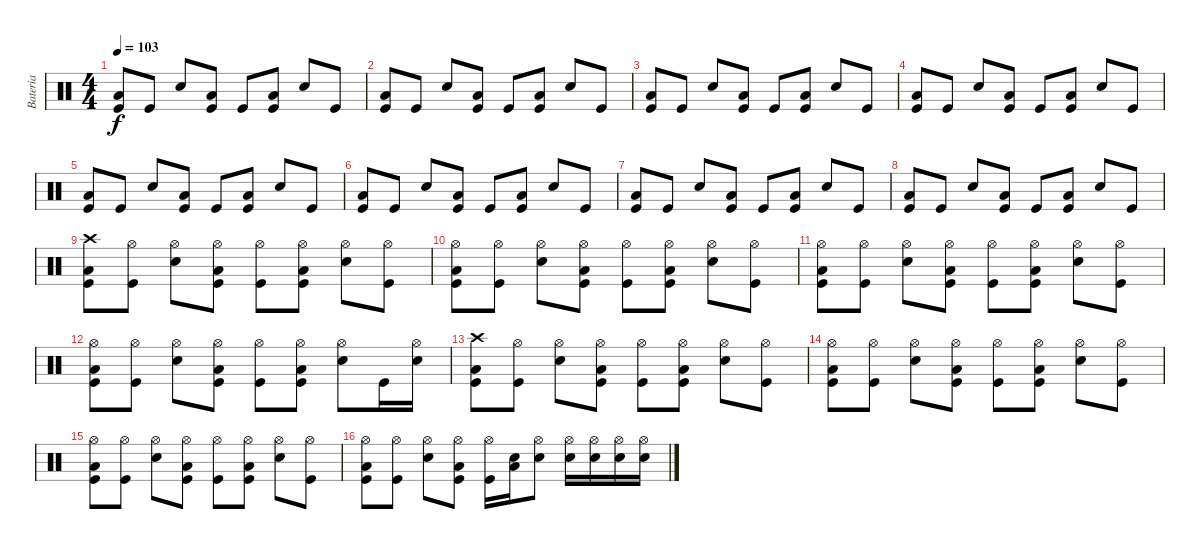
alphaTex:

\track ("Bateria" "Bateria") {instrument percussion}
\staff {score}
\articulation defaults
\ts (4 4)
\tempo 103
\clef neutral
\ks c
("Kick (hit)" "Low Tom (hit)").8{dy f} "Kick (hit)".8 "Snare (hit) 2".8 ("Kick (hit)" "Low Tom (hit)").8 "Kick (hit)".8 ("Kick (hit)" "Low Tom (hit)").8 "Snare (hit) 2".8 "Kick (hit)".8 |
("Kick (hit)" "Low Tom (hit)").8 "Kick (hit)".8 "Snare (hit) 2".8 ("Kick (hit)" "Low Tom (hit)").8 "Kick (hit)".8 ("Kick (hit)" "Low Tom (hit)").8 "Snare (hit) 2".8 "Kick (hit)".8 |
("Kick (hit)" "Low Tom (hit)").8 "Kick (hit)".8 "Snare (hit) 2".8 ("Kick (hit)" "Low Tom (hit)").8 "Kick (hit)".8 ("Kick (hit)" "Low Tom (hit)").8 "Snare (hit) 2".8 "Kick (hit)".8 |
("Kick (hit)" "Low Tom (hit)").8 "Kick (hit)".8 "Snare (hit) 2".8 ("Kick (hit)" "Low Tom (hit)").8 "Kick (hit)".8 ("Kick (hit)" "Low Tom (hit)").8 "Snare (hit) 2".8 "Kick (hit)".8 |
("Kick (hit)" "Low Tom (hit)").8 "Kick (hit)".8 "Snare (hit) 2".8 ("Kick (hit)" "Low Tom (hit)").8 "Kick (hit)".8 ("Kick (hit)" "Low Tom (hit)").8 "Snare (hit) 2".8 "Kick (hit)".8 |
("Kick (hit)" "Low Tom (hit)").8 "Kick (hit)".8 "Snare (hit) 2".8 ("Kick (hit)" "Low Tom (hit)").8 "Kick (hit)".8 ("Kick (hit)" "Low Tom (hit)").8 "Snare (hit) 2".8 "Kick (hit)".8 |
("Kick (hit)" "Low Tom (hit)").8 "Kick (hit)".8 "Snare (hit) 2".8 ("Kick (hit)" "Low Tom (hit)").8 "Kick (hit)".8 ("Kick (hit)" "Low Tom (hit)").8 "Snare (hit) 2".8 "Kick (hit)".8 |
("Kick (hit)" "Low Tom (hit)").8 "Kick (hit)".8 "Snare (hit) 2".8 ("Kick (hit)" "Low Tom (hit)").8 "Kick (hit)".8 ("Kick (hit)" "Low Tom (hit)").8 "Snare (hit) 2".8 "Kick (hit)".8 |
("Crash high (hit)" "Kick (hit)" "Low Tom (hit)").8 ("Hi-Hat (open)" "Kick (hit)").8 ("Hi-Hat (open)" "Snare (hit) 2").8 ("Hi-Hat (open)" "Kick (hit)" "Low Tom (hit)").8 ("Hi-Hat (open)" "Kick (hit)").8 ("Hi-Hat (open)" "Kick (hit)" "Low Tom (hit)").8 ("Hi-Hat (open)" "Snare (hit) 2").8 ("Hi-Hat (open)" "Kick (hit)").8 |
("Hi-Hat (open)" "Kick (hit)" "Low Tom (hit)").8 ("Hi-Hat (open)" "Kick (hit)").8 ("Hi-Hat (open)" "Snare (hit) 2").8 ("Hi-Hat (open)" "Kick (hit)" "Low Tom (hit)").8 ("Hi-Hat (open)" "Kick (hit)").8 ("Hi-Hat (open)" "Kick (hit)" "Low Tom (hit)").8 ("Hi-Hat (open)" "Snare (hit) 2").8 ("Hi-Hat (open)" "Kick (hit)").8 |
("Hi-Hat (open)" "Kick (hit)" "Low Tom (hit)").8 ("Hi-Hat (open)" "Kick (hit)").8 ("Hi-Hat (open)" "Snare (hit) 2").8 ("Hi-Hat (open)" "Kick (hit)" "Low Tom (hit)").8 ("Hi-Hat (open)" "Kick (hit)").8 ("Hi-Hat (open)" "Kick (hit)" "Low Tom (hit)").8 ("Hi-Hat (open)" "Snare (hit) 2").8 ("Hi-Hat (open)" "Kick (hit)").8 |
("Hi-Hat (open)" "Kick (hit)" "Low Tom (hit)").8 ("Hi-Hat (open)" "Kick (hit)").8 ("Hi-Hat (open)" "Snare (hit) 2").8 ("Hi-Hat (open)" "Kick (hit)" "Low Tom (hit)").8 ("Hi-Hat (open)" "Kick (hit)").8 ("Hi-Hat (open)" "Kick (hit)" "Low Tom (hit)").8 ("Hi-Hat (open)" "Snare (hit) 2").8 "Kick (hit)".16 ("Hi-Hat (open)" "Snare (hit) 2").16 |
("Crash high (hit)" "Kick (hit)" "Low Tom (hit)").8 ("Hi-Hat (open)" "Kick (hit)").8 ("Hi-Hat (open)" "Snare (hit) 2").8 ("Hi-Hat (open)" "Kick (hit)" "Low Tom (hit)").8 ("Hi-Hat (open)" "Kick (hit)").8 ("Hi-Hat (open)" "Kick (hit)" "Low Tom (hit)").8 ("Hi-Hat (open)" "Snare (hit) 2").8 ("Hi-Hat (open)" "Kick (hit)").8 |
("Hi-Hat (open)" "Kick (hit)" "Low Tom (hit)").8 ("Hi-Hat (open)" "Kick (hit)").8 ("Hi-Hat (open)" "Snare (hit) 2").8 ("Hi-Hat (open)" "Kick (hit)" "Low Tom (hit)").8 ("Hi-Hat (open)" "Kick (hit)").8 ("Hi-Hat (open)" "Kick (hit)" "Low Tom (hit)").8 ("Hi-Hat (open)" "Snare (hit) 2").8 ("Hi-Hat (open)" "Kick (hit)").8 |
("Hi-Hat (open)" "Kick (hit)" "Low Tom (hit)").8 ("Hi-Hat (open)" "Kick (hit)").8 ("Hi-Hat (open)" "Snare (hit) 2").8 ("Hi-Hat (open)" "Kick (hit)" "Low Tom (hit)").8 ("Hi-Hat (open)" "Kick (hit)").8 ("Hi-Hat (open)" "Kick (hit)" "Low Tom (hit)").8 ("Hi-Hat (open)" "Snare (hit) 2").8 ("Hi-Hat (open)" "Kick (hit)").8 |
("Hi-Hat (open)" "Kick (hit)" "Low Tom (hit)").8 ("Hi-Hat (open)" "Kick (hit)").8 ("Hi-Hat (open)" "Snare (hit) 2").8 ("Hi-Hat (open)" "Kick (hit)" "Low Tom (hit)").8 ("Hi-Hat (open)" "Kick (hit)").16 ("Snare (hit) 2" "Low Tom (hit)").16 ("Hi-Hat (open)" "Snare (hit) 2").8 ("Hi-Hat (open)" "Snare (hit) 2").16 ("Hi-Hat (open)" "Snare (hit) 2").16 ("Hi-Hat (open)" "Snare (hit) 2").16 ("Hi-Hat (open)" "Snare (hit) 2").16
